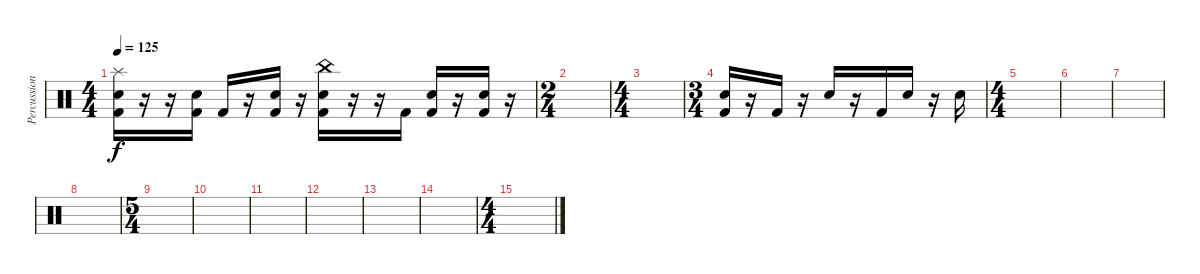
\track ("Percussion" "Percussion") {instrument percussion}
\staff {score}
\articulation defaults
\ts (4 4)
\tempo 125
\clef neutral
\ks c
("Splash (hit)" "Electric Snare (hit)" "Kick (hit) 2").16{dy f} r.16 r.16 ("Electric Snare (hit)" "Kick (hit) 2").16 "Kick (hit) 2".16 r.16 ("Electric Snare (hit)" "Kick (hit) 2").16 r.16 ("China (hit)" "Electric Snare (hit)" "Kick (hit) 2").16 r.16 r.16 "Kick (hit) 2".16 ("Electric Snare (hit)" "Kick (hit) 2").16 r.16 ("Electric Snare (hit)" "Kick (hit) 2").16 r.16 |
\ts (2 4)
|
\ts (4 4)
|
\ts (3 4)
("Electric Snare (hit)" "Kick (hit) 2").16 r.16 "Kick (hit) 2".16 r.16 "Electric Snare (hit)".16 r.16 "Kick (hit) 2".16 "Electric Snare (hit)".16 r.16 "Electric Snare (hit)".16 |
\ts (4 4)
|
|
|
|
\ts (5 4)
|
|
|
|
|
|
\ts (4 4)
